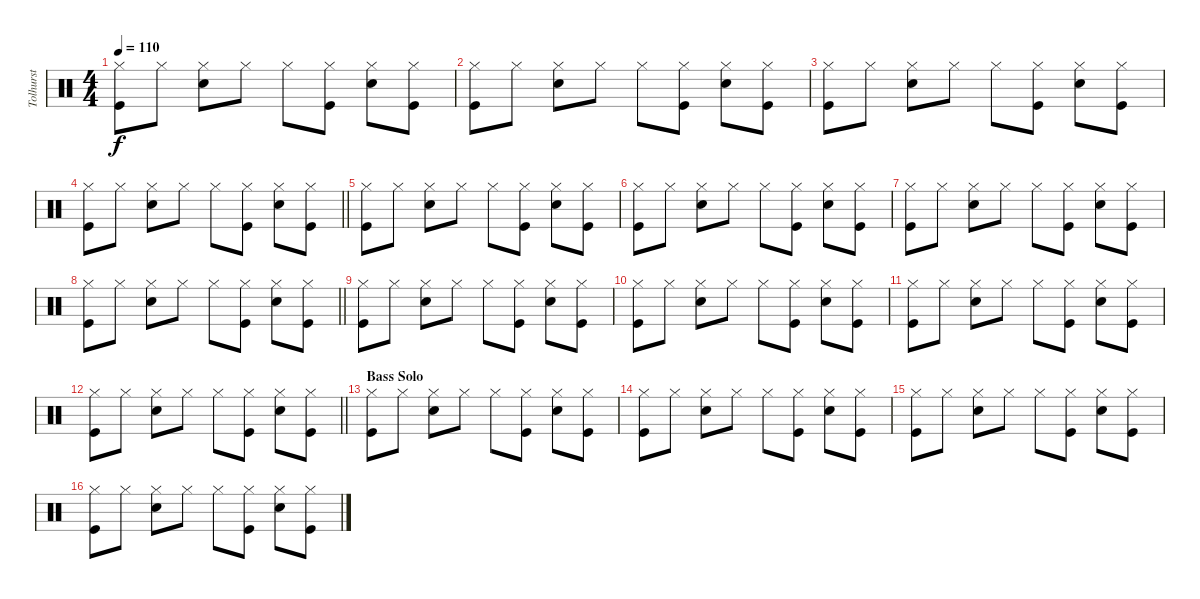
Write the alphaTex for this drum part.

\track ("Tolhurst" "Tolhurst") {instrument percussion}
\staff {score}
\articulation defaults
\ts (4 4)
\tempo 110
\clef neutral
\ks c
("Hi-Hat (closed)" "Kick (hit)").8{dy f} "Hi-Hat (closed)".8 ("Hi-Hat (closed)" "Electric Snare (hit)").8 "Hi-Hat (closed)".8 "Hi-Hat (closed)".8 ("Hi-Hat (closed)" "Kick (hit)").8 ("Hi-Hat (closed)" "Electric Snare (hit)").8 ("Hi-Hat (closed)" "Kick (hit)").8 |
("Hi-Hat (closed)" "Kick (hit)").8 "Hi-Hat (closed)".8 ("Hi-Hat (closed)" "Electric Snare (hit)").8 "Hi-Hat (closed)".8 "Hi-Hat (closed)".8 ("Hi-Hat (closed)" "Kick (hit)").8 ("Hi-Hat (closed)" "Electric Snare (hit)").8 ("Hi-Hat (closed)" "Kick (hit)").8 |
("Hi-Hat (closed)" "Kick (hit)").8 "Hi-Hat (closed)".8 ("Hi-Hat (closed)" "Electric Snare (hit)").8 "Hi-Hat (closed)".8 "Hi-Hat (closed)".8 ("Hi-Hat (closed)" "Kick (hit)").8 ("Hi-Hat (closed)" "Electric Snare (hit)").8 ("Hi-Hat (closed)" "Kick (hit)").8 |
\barLineRight lightlight
("Hi-Hat (closed)" "Kick (hit)").8 "Hi-Hat (closed)".8 ("Hi-Hat (closed)" "Electric Snare (hit)").8 "Hi-Hat (closed)".8 "Hi-Hat (closed)".8 ("Hi-Hat (closed)" "Kick (hit)").8 ("Hi-Hat (closed)" "Electric Snare (hit)").8 ("Hi-Hat (closed)" "Kick (hit)").8 |
("Hi-Hat (closed)" "Kick (hit)").8 "Hi-Hat (closed)".8 ("Hi-Hat (closed)" "Electric Snare (hit)").8 "Hi-Hat (closed)".8 "Hi-Hat (closed)".8 ("Hi-Hat (closed)" "Kick (hit)").8 ("Hi-Hat (closed)" "Electric Snare (hit)").8 ("Hi-Hat (closed)" "Kick (hit)").8 |
("Hi-Hat (closed)" "Kick (hit)").8 "Hi-Hat (closed)".8 ("Hi-Hat (closed)" "Electric Snare (hit)").8 "Hi-Hat (closed)".8 "Hi-Hat (closed)".8 ("Hi-Hat (closed)" "Kick (hit)").8 ("Hi-Hat (closed)" "Electric Snare (hit)").8 ("Hi-Hat (closed)" "Kick (hit)").8 |
("Hi-Hat (closed)" "Kick (hit)").8 "Hi-Hat (closed)".8 ("Hi-Hat (closed)" "Electric Snare (hit)").8 "Hi-Hat (closed)".8 "Hi-Hat (closed)".8 ("Hi-Hat (closed)" "Kick (hit)").8 ("Hi-Hat (closed)" "Electric Snare (hit)").8 ("Hi-Hat (closed)" "Kick (hit)").8 |
\barLineRight lightlight
("Hi-Hat (closed)" "Kick (hit)").8 "Hi-Hat (closed)".8 ("Hi-Hat (closed)" "Electric Snare (hit)").8 "Hi-Hat (closed)".8 "Hi-Hat (closed)".8 ("Hi-Hat (closed)" "Kick (hit)").8 ("Hi-Hat (closed)" "Electric Snare (hit)").8 ("Hi-Hat (closed)" "Kick (hit)").8 |
("Hi-Hat (closed)" "Kick (hit)").8 "Hi-Hat (closed)".8 ("Hi-Hat (closed)" "Electric Snare (hit)").8 "Hi-Hat (closed)".8 "Hi-Hat (closed)".8 ("Hi-Hat (closed)" "Kick (hit)").8 ("Hi-Hat (closed)" "Electric Snare (hit)").8 ("Hi-Hat (closed)" "Kick (hit)").8 |
("Hi-Hat (closed)" "Kick (hit)").8 "Hi-Hat (closed)".8 ("Hi-Hat (closed)" "Electric Snare (hit)").8 "Hi-Hat (closed)".8 "Hi-Hat (closed)".8 ("Hi-Hat (closed)" "Kick (hit)").8 ("Hi-Hat (closed)" "Electric Snare (hit)").8 ("Hi-Hat (closed)" "Kick (hit)").8 |
("Hi-Hat (closed)" "Kick (hit)").8 "Hi-Hat (closed)".8 ("Hi-Hat (closed)" "Electric Snare (hit)").8 "Hi-Hat (closed)".8 "Hi-Hat (closed)".8 ("Hi-Hat (closed)" "Kick (hit)").8 ("Hi-Hat (closed)" "Electric Snare (hit)").8 ("Hi-Hat (closed)" "Kick (hit)").8 |
\barLineRight lightlight
("Hi-Hat (closed)" "Kick (hit)").8 "Hi-Hat (closed)".8 ("Hi-Hat (closed)" "Electric Snare (hit)").8 "Hi-Hat (closed)".8 "Hi-Hat (closed)".8 ("Hi-Hat (closed)" "Kick (hit)").8 ("Hi-Hat (closed)" "Electric Snare (hit)").8 ("Hi-Hat (closed)" "Kick (hit)").8 |
\section ("" "Bass Solo")
("Hi-Hat (closed)" "Kick (hit)").8 "Hi-Hat (closed)".8 ("Hi-Hat (closed)" "Electric Snare (hit)").8 "Hi-Hat (closed)".8 "Hi-Hat (closed)".8 ("Hi-Hat (closed)" "Kick (hit)").8 ("Hi-Hat (closed)" "Electric Snare (hit)").8 ("Hi-Hat (closed)" "Kick (hit)").8 |
("Hi-Hat (closed)" "Kick (hit)").8 "Hi-Hat (closed)".8 ("Hi-Hat (closed)" "Electric Snare (hit)").8 "Hi-Hat (closed)".8 "Hi-Hat (closed)".8 ("Hi-Hat (closed)" "Kick (hit)").8 ("Hi-Hat (closed)" "Electric Snare (hit)").8 ("Hi-Hat (closed)" "Kick (hit)").8 |
("Hi-Hat (closed)" "Kick (hit)").8 "Hi-Hat (closed)".8 ("Hi-Hat (closed)" "Electric Snare (hit)").8 "Hi-Hat (closed)".8 "Hi-Hat (closed)".8 ("Hi-Hat (closed)" "Kick (hit)").8 ("Hi-Hat (closed)" "Electric Snare (hit)").8 ("Hi-Hat (closed)" "Kick (hit)").8 |
("Hi-Hat (closed)" "Kick (hit)").8 "Hi-Hat (closed)".8 ("Hi-Hat (closed)" "Electric Snare (hit)").8 "Hi-Hat (closed)".8 "Hi-Hat (closed)".8 ("Hi-Hat (closed)" "Kick (hit)").8 ("Hi-Hat (closed)" "Electric Snare (hit)").8 ("Hi-Hat (closed)" "Kick (hit)").8
